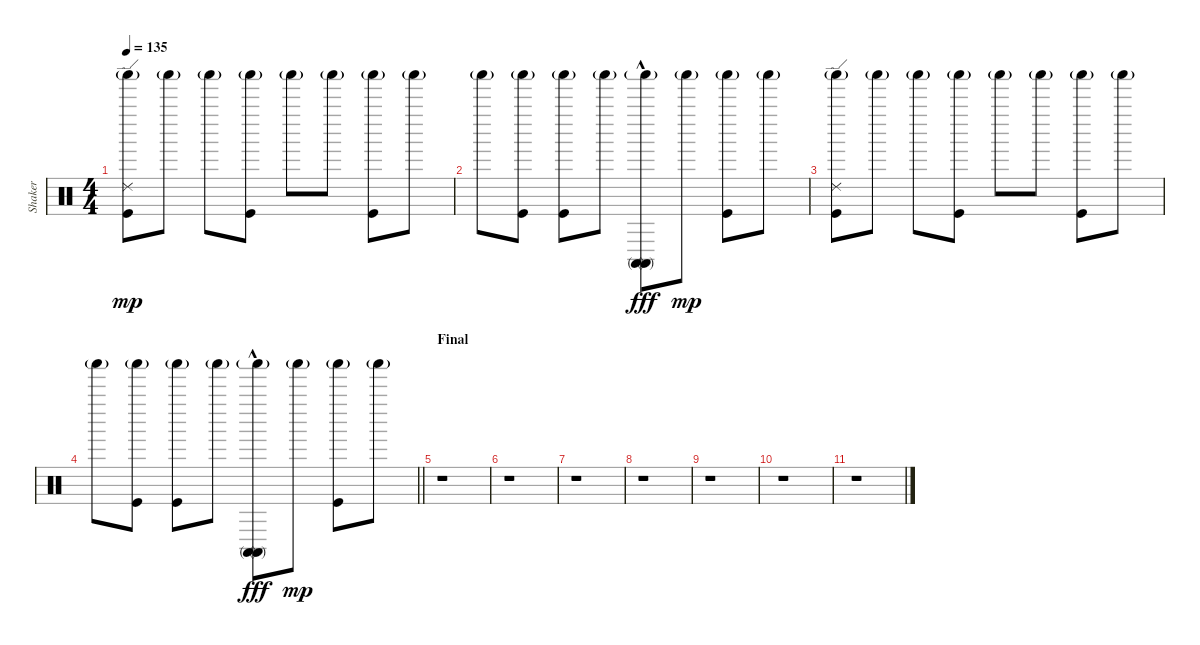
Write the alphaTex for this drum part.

\track ("Shaker" "Shaker") {instrument percussion}
\staff {score}
\articulation defaults
\ts (4 4)
\tempo 135
\clef neutral
\ks c
("Ride (edge) 2" "Shaker (hit)"{g} "Kick (hit)").8{dy mp} "Shaker (hit)"{g}.8 "Shaker (hit)"{g}.8 ("Shaker (hit)"{g} "Kick (hit)").8 "Shaker (hit)"{g}.8 "Shaker (hit)"{g}.8 ("Shaker (hit)"{g} "Kick (hit)").8 "Shaker (hit)"{g}.8 |
"Shaker (hit)"{g}.8 ("Shaker (hit)"{g} "Kick (hit)").8 ("Shaker (hit)"{g} "Kick (hit)").8 "Shaker (hit)"{g}.8 ("Shaker (hit)"{g} "Conga high (mute)"{hac} "Conga high (mute)"{hac}).8{dy fff} "Shaker (hit)"{g}.8{dy mp} ("Shaker (hit)"{g} "Kick (hit)").8 "Shaker (hit)"{g}.8 |
("Ride (edge) 2" "Shaker (hit)"{g} "Kick (hit)").8 "Shaker (hit)"{g}.8 "Shaker (hit)"{g}.8 ("Shaker (hit)"{g} "Kick (hit)").8 "Shaker (hit)"{g}.8 "Shaker (hit)"{g}.8 ("Shaker (hit)"{g} "Kick (hit)").8 "Shaker (hit)"{g}.8 |
\barLineRight lightlight "Shaker (hit)"{g}.8
("Shaker (hit)"{g} "Kick (hit)").8 ("Shaker (hit)"{g} "Kick (hit)").8 "Shaker (hit)"{g}.8 ("Shaker (hit)"{g} "Conga high (mute)"{hac} "Conga high (mute)"{hac}).8{dy fff} "Shaker (hit)"{g}.8{dy mp} ("Shaker (hit)"{g} "Kick (hit)").8 "Shaker (hit)"{g}.8 |
\section ("" "Final")
r.1 |
r.1 |
r.1 |
r.1 |
r.1 |
r.1 |
r.1
